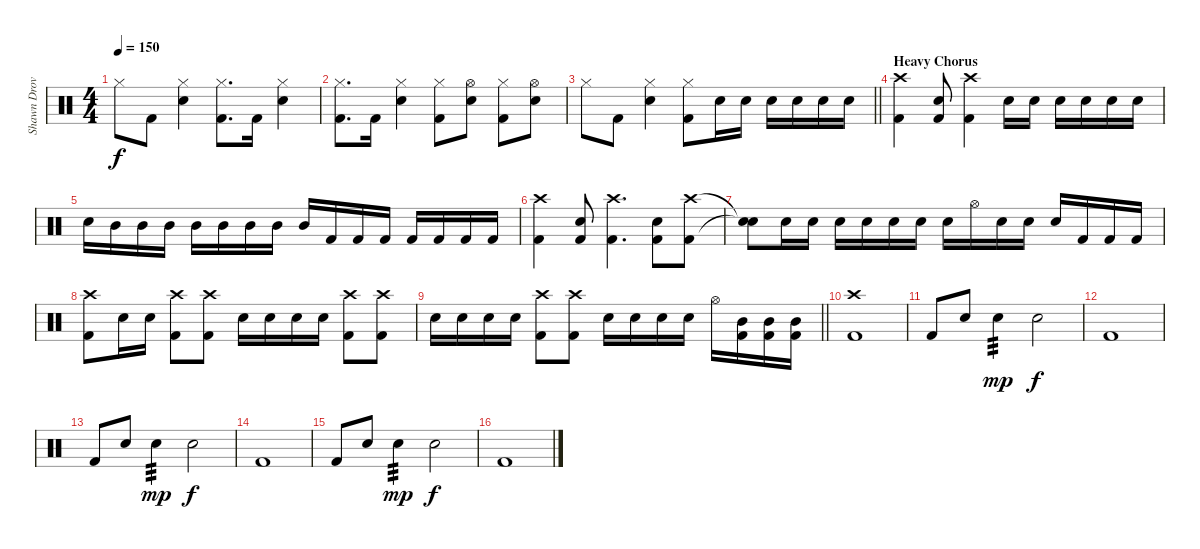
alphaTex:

\track ("Shawn Drover" "Shawn Drov") {instrument percussion}
\staff {score}
\articulation defaults
\ts (4 4)
\tempo 150
\clef neutral
\ks c "Hi-Hat (closed)".8{dy f} "Kick (hit) 2".8
("Hi-Hat (closed)" "Snare (hit) 2").4 ("Hi-Hat (closed)" "Kick (hit) 2").8{d} "Kick (hit) 2".16 ("Hi-Hat (closed)" "Snare (hit) 2").4 |
("Hi-Hat (closed)" "Kick (hit) 2").8{d} "Kick (hit) 2".16 ("Hi-Hat (closed)" "Snare (hit) 2").4 ("Hi-Hat (closed)" "Kick (hit) 2").8 ("Hi-Hat (open)" "Snare (hit) 2").8 ("Hi-Hat (closed)" "Kick (hit) 2").8 ("Hi-Hat (open)" "Snare (hit) 2").8 |
\barLineRight lightlight "Hi-Hat (closed)".8 "Kick (hit) 2".8
("Hi-Hat (closed)" "Snare (hit) 2").4 ("Hi-Hat (closed)" "Kick (hit) 2").8 "Snare (hit) 2".16 "Snare (hit) 2".16 "Snare (hit) 2".16 "Snare (hit) 2".16 "Snare (hit) 2".16 "Snare (hit) 2".16 |
\section ("" "Heavy Chorus")
("Crash high (hit)" "Kick (hit) 2").4 ("Snare (hit) 2" "Kick (hit) 2").8 ("Crash high (hit)" "Kick (hit) 2").4 "Snare (hit) 2".16 "Snare (hit) 2".16 "Snare (hit) 2".16 "Snare (hit) 2".16 "Snare (hit) 2".16 "Snare (hit) 2".16 |
"Snare (hit) 2".16 "Mid Tom (hit)".16 "Mid Tom (hit)".16 "Mid Tom (hit)".16 "Mid Tom (hit)".16 "Mid Tom (hit)".16 "Mid Tom (hit)".16 "Mid Tom (hit)".16 "Mid Tom (hit)".16 "Kick (hit) 2".16 "Kick (hit) 2".16 "Kick (hit) 2".16 "Kick (hit) 2".16 "Kick (hit) 2".16 "Kick (hit) 2".16 "Kick (hit) 2".16 |
("Crash high (hit)" "Kick (hit) 2").4 ("Snare (hit) 2" "Kick (hit) 2").8 ("Crash high (hit)" "Kick (hit) 2").4{d} ("Snare (hit) 2" "Kick (hit) 2").8 ("Crash high (hit)" "Kick (hit) 2").8 |
("Snare (hit)"{t} "Snare (hit)"{t}).8 "Snare (hit) 2".16 "Snare (hit) 2".16 "Snare (hit) 2".16 "Snare (hit) 2".16 "Snare (hit) 2".16 "Snare (hit) 2".16 "Snare (hit) 2".16 "Hi-Hat (open)".16 "Snare (hit) 2".16 "Snare (hit) 2".16 "Snare (hit) 2".16 "Kick (hit) 2".16 "Kick (hit) 2".16 "Kick (hit) 2".16 |
("Crash high (hit)" "Kick (hit) 2").8 "Snare (hit) 2".16 "Snare (hit) 2".16 ("Crash high (hit)" "Kick (hit) 2").8 ("Crash high (hit)" "Kick (hit) 2").8 "Snare (hit) 2".16 "Snare (hit) 2".16 "Snare (hit) 2".16 "Snare (hit) 2".16 ("Crash high (hit)" "Kick (hit) 2").8 ("Crash high (hit)" "Kick (hit) 2").8 |
\barLineRight lightlight "Snare (hit) 2".16 "Snare (hit) 2".16 "Snare (hit) 2".16 "Snare (hit) 2".16
("Crash high (hit)" "Kick (hit) 2").8 ("Crash high (hit)" "Kick (hit) 2").8 "Snare (hit) 2".16 "Snare (hit) 2".16 "Snare (hit) 2".16 "Snare (hit) 2".16 "Hi-Hat (open)".16 ("Mid Tom (hit)" "Kick (hit) 2").16 ("Mid Tom (hit)" "Kick (hit) 2").16 ("Mid Tom (hit)" "Kick (hit) 2").16 |
("Crash high (hit)" "Kick (hit) 2").1 |
"Kick (hit) 2".8 "Snare (hit) 2".8 "Snare (hit) 2".4{tp 3 dy mp} "Snare (hit) 2".2{dy f} |
"Kick (hit) 2".1 |
"Kick (hit) 2".8 "Snare (hit) 2".8 "Snare (hit) 2".4{tp 3 dy mp} "Snare (hit) 2".2{dy f} |
"Kick (hit) 2".1 |
"Kick (hit) 2".8 "Snare (hit) 2".8 "Snare (hit) 2".4{tp 3 dy mp} "Snare (hit) 2".2{dy f} |
"Kick (hit) 2".1
